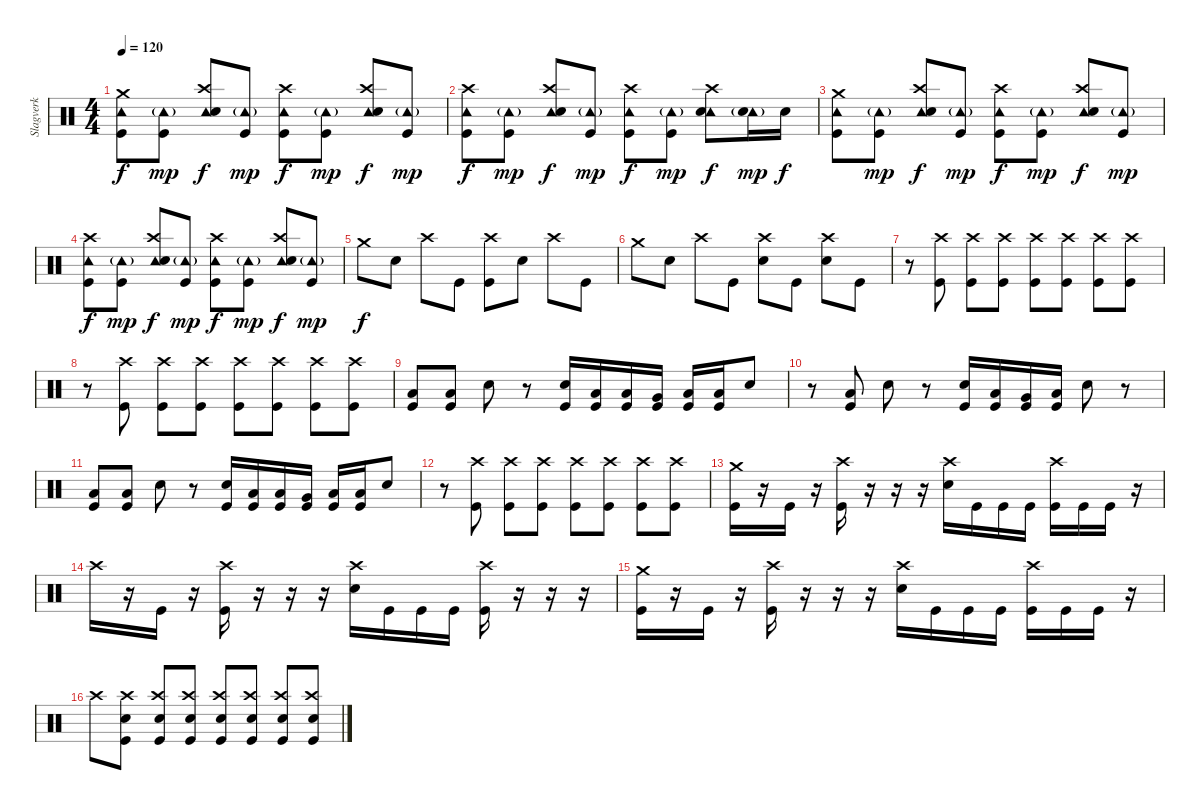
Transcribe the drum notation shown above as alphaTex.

\track ("Slagverk" "Slagverk") {instrument percussion}
\staff {score}
\articulation defaults
\ts (4 4)
\tempo 120
\clef neutral
\ks c
("Crash medium (hit)" "Tambourine (hit)" "Kick (hit)").8{dy f} ("Tambourine (hit)"{g} "Kick (hit)").8{dy mp} ("Crash high (hit)" "Tambourine (hit)" "Snare (hit) 2").8{dy f} ("Tambourine (hit)"{g} "Kick (hit)").8{dy mp} ("Crash high (hit)" "Tambourine (hit)" "Kick (hit)").8{dy f} ("Tambourine (hit)"{g} "Kick (hit)").8{dy mp} ("Crash high (hit)" "Tambourine (hit)" "Snare (hit) 2").8{dy f} ("Tambourine (hit)"{g} "Kick (hit)").8{dy mp} |
("Crash high (hit)" "Tambourine (hit)" "Kick (hit)").8{dy f} ("Tambourine (hit)"{g} "Kick (hit)").8{dy mp} ("Crash high (hit)" "Tambourine (hit)" "Snare (hit) 2").8{dy f} ("Tambourine (hit)"{g} "Kick (hit)").8{dy mp} ("Crash high (hit)" "Tambourine (hit)" "Kick (hit)").8{dy f} ("Tambourine (hit)"{g} "Kick (hit)").8{dy mp} ("Crash high (hit)" "Tambourine (hit)" "Snare (hit) 2").8{dy f} ("Tambourine (hit)"{g} "Snare (hit) 2").16{dy mp} "Snare (hit) 2".16{dy f} |
("Crash medium (hit)" "Tambourine (hit)" "Kick (hit)").8 ("Tambourine (hit)"{g} "Kick (hit)").8{dy mp} ("Crash high (hit)" "Tambourine (hit)" "Snare (hit) 2").8{dy f} ("Tambourine (hit)"{g} "Kick (hit)").8{dy mp} ("Crash high (hit)" "Tambourine (hit)" "Kick (hit)").8{dy f} ("Tambourine (hit)"{g} "Kick (hit)").8{dy mp} ("Crash high (hit)" "Tambourine (hit)" "Snare (hit) 2").8{dy f} ("Tambourine (hit)"{g} "Kick (hit)").8{dy mp} |
("Crash high (hit)" "Tambourine (hit)" "Kick (hit)").8{dy f} ("Tambourine (hit)"{g} "Kick (hit)").8{dy mp} ("Crash high (hit)" "Tambourine (hit)" "Snare (hit) 2").8{dy f} ("Tambourine (hit)"{g} "Kick (hit)").8{dy mp} ("Crash high (hit)" "Tambourine (hit)" "Kick (hit)").8{dy f} ("Tambourine (hit)"{g} "Kick (hit)").8{dy mp} ("Crash high (hit)" "Tambourine (hit)" "Snare (hit) 2").8{dy f} ("Tambourine (hit)"{g} "Kick (hit)").8{dy mp} |
"Crash medium (hit)".8{dy f} "Snare (hit) 2".8 "Crash high (hit)".8 "Kick (hit)".8 ("Crash high (hit)" "Kick (hit)").8 "Snare (hit) 2".8 "Crash high (hit)".8 "Kick (hit)".8 |
"Crash medium (hit)".8 "Snare (hit) 2".8 "Crash high (hit)".8 "Kick (hit)".8 ("Crash high (hit)" "Snare (hit) 2").8 "Kick (hit)".8 ("Crash high (hit)" "Snare (hit) 2").8 "Kick (hit)".8 |
r.8 ("Crash high (hit)" "Kick (hit)").8 ("Crash high (hit)" "Kick (hit)").8 ("Crash high (hit)" "Kick (hit)").8 ("Crash high (hit)" "Kick (hit)").8 ("Crash high (hit)" "Kick (hit)").8 ("Crash high (hit)" "Kick (hit)").8 ("Crash high (hit)" "Kick (hit)").8 |
r.8 ("Crash high (hit)" "Kick (hit)").8 ("Crash high (hit)" "Kick (hit)").8 ("Crash high (hit)" "Kick (hit)").8 ("Crash high (hit)" "Kick (hit)").8 ("Crash high (hit)" "Kick (hit)").8 ("Crash high (hit)" "Kick (hit)").8 ("Crash high (hit)" "Kick (hit)").8 |
("Low Floor Tom (hit)" "Kick (hit)").8 ("Low Floor Tom (hit)" "Kick (hit)").8 "Snare (hit) 2".8 r.8 ("Snare (hit) 2" "Kick (hit)").16 ("Low Tom (hit)" "Kick (hit)").16 ("Low Tom (hit)" "Kick (hit)").16 ("Very Low Tom (hit)" "Kick (hit)").16 ("Low Floor Tom (hit)" "Kick (hit)").16 ("Low Floor Tom (hit)" "Kick (hit)").16 "Snare (hit) 2".8 |
r.8 ("Low Floor Tom (hit)" "Kick (hit)").8 "Snare (hit) 2".8 r.8 ("Snare (hit) 2" "Kick (hit)").16 ("Low Tom (hit)" "Kick (hit)").16 ("Very Low Tom (hit)" "Kick (hit)").16 ("Low Floor Tom (hit)" "Kick (hit)").16 "Snare (hit) 2".8 r.8 |
("Low Floor Tom (hit)" "Kick (hit)").8 ("Low Floor Tom (hit)" "Kick (hit)").8 "Snare (hit) 2".8 r.8 ("Snare (hit) 2" "Kick (hit)").16 ("Low Tom (hit)" "Kick (hit)").16 ("Low Tom (hit)" "Kick (hit)").16 ("Very Low Tom (hit)" "Kick (hit)").16 ("Low Floor Tom (hit)" "Kick (hit)").16 ("Low Floor Tom (hit)" "Kick (hit)").16 "Snare (hit) 2".8 |
r.8 ("Crash high (hit)" "Kick (hit)").8 ("Crash high (hit)" "Kick (hit)").8 ("Crash high (hit)" "Kick (hit)").8 ("Crash high (hit)" "Kick (hit)").8 ("Crash high (hit)" "Kick (hit)").8 ("Crash high (hit)" "Kick (hit)").8 ("Crash high (hit)" "Kick (hit)").8 |
("Crash medium (hit)" "Kick (hit)").16 r.16 "Kick (hit)".16 r.16 ("Crash high (hit)" "Kick (hit)").16 r.16 r.16 r.16 ("Crash high (hit)" "Snare (hit) 2").16 "Kick (hit)".16 "Kick (hit)".16 "Kick (hit)".16 ("Crash high (hit)" "Kick (hit)").16 "Kick (hit)".16 "Kick (hit)".16 r.16 |
"Crash high (hit)".16 r.16 "Kick (hit)".16 r.16 ("Crash high (hit)" "Kick (hit)").16 r.16 r.16 r.16 ("Crash high (hit)" "Snare (hit) 2").16 "Kick (hit)".16 "Kick (hit)".16 "Kick (hit)".16 ("Crash high (hit)" "Kick (hit)").16 r.16 r.16 r.16 |
("Crash medium (hit)" "Kick (hit)").16 r.16 "Kick (hit)".16 r.16 ("Crash high (hit)" "Kick (hit)").16 r.16 r.16 r.16 ("Crash high (hit)" "Snare (hit) 2").16 "Kick (hit)".16 "Kick (hit)".16 "Kick (hit)".16 ("Crash high (hit)" "Kick (hit)").16 "Kick (hit)".16 "Kick (hit)".16 r.16 |
"Crash high (hit)".8 ("Crash high (hit)" "Snare (hit) 2" "Kick (hit)").8 ("Crash high (hit)" "Snare (hit) 2" "Kick (hit)").8 ("Crash high (hit)" "Snare (hit) 2" "Kick (hit)").8 ("Crash high (hit)" "Snare (hit) 2" "Kick (hit)").8 ("Crash high (hit)" "Snare (hit) 2" "Kick (hit)").8 ("Crash high (hit)" "Snare (hit) 2" "Kick (hit)").8 ("Crash high (hit)" "Snare (hit) 2" "Kick (hit)").8
